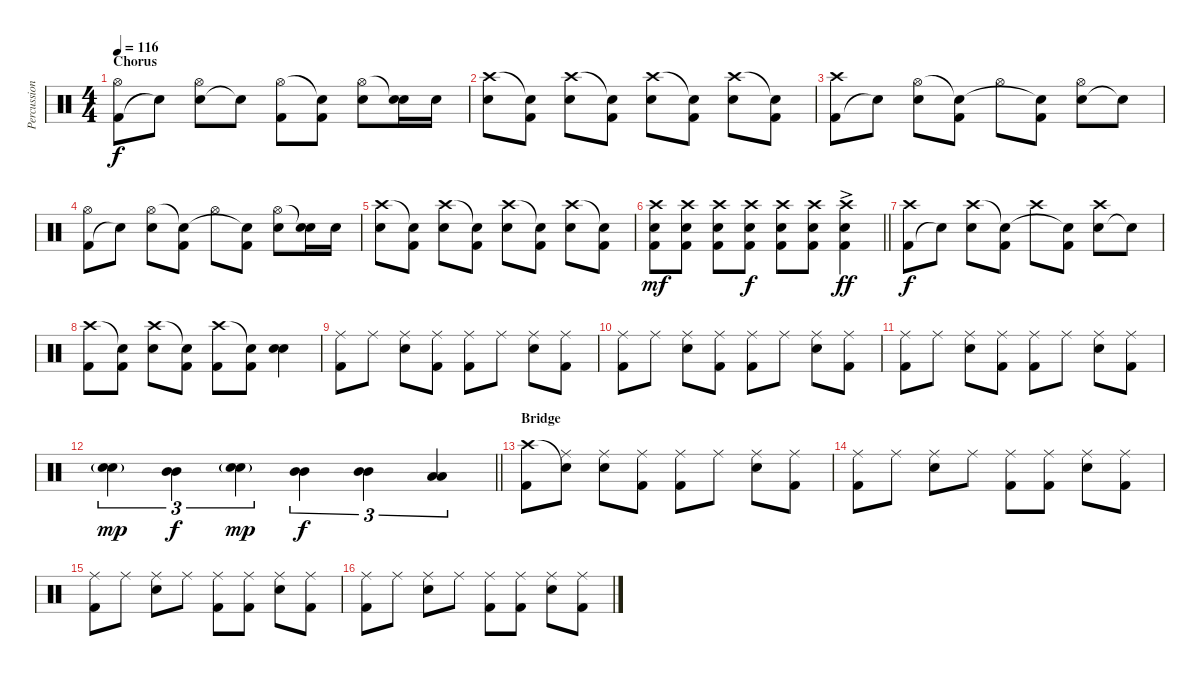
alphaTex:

\track ("Percussion" "Percussion") {instrument percussion}
\staff {score}
\articulation defaults
\ts (4 4)
\section ("" "Chorus")
\tempo 116
\clef neutral
\ks c
("Kick (hit) 2" "Hi-Hat (open)").8{dy f} "Snare (hit)"{t}.8 ("Electric Snare (hit)" "Hi-Hat (open)").8 "Snare (hit)"{t}.8 ("Kick (hit) 2" "Hi-Hat (open)").8 ("Kick (hit) 2" "Snare (hit)"{t}).8 ("Electric Snare (hit)" "Hi-Hat (open)").8 ("Electric Snare (hit)" "Snare (hit)"{t}).16 "Electric Snare (hit)".16 |
("Electric Snare (hit)" "Crash high (hit)").8 ("Kick (hit) 2" "Snare (hit)"{t}).8 ("Electric Snare (hit)" "Crash high (hit)").8 ("Kick (hit) 2" "Snare (hit)"{t}).8 ("Electric Snare (hit)" "Crash high (hit)").8 ("Kick (hit) 2" "Snare (hit)"{t}).8 ("Electric Snare (hit)" "Crash high (hit)").8 ("Kick (hit) 2" "Snare (hit)"{t}).8 |
("Kick (hit) 2" "Crash high (hit)").8 "Snare (hit)"{t}.8 ("Electric Snare (hit)" "Hi-Hat (open)").8 ("Kick (hit) 2" "Snare (hit)"{t}).8 "Hi-Hat (open)".8 ("Kick (hit) 2" "Snare (hit)"{t}).8 ("Electric Snare (hit)" "Hi-Hat (open)").8 "Snare (hit)"{t}.8 |
("Kick (hit) 2" "Hi-Hat (open)").8 "Snare (hit)"{t}.8 ("Electric Snare (hit)" "Hi-Hat (open)").8 ("Kick (hit) 2" "Snare (hit)"{t}).8 "Hi-Hat (open)".8 ("Kick (hit) 2" "Snare (hit)"{t}).8 ("Electric Snare (hit)" "Hi-Hat (open)").8 ("Electric Snare (hit)" "Snare (hit)"{t}).16 "Electric Snare (hit)".16 |
("Electric Snare (hit)" "Crash high (hit)").8 ("Kick (hit) 2" "Snare (hit)"{t}).8 ("Electric Snare (hit)" "Crash high (hit)").8 ("Kick (hit) 2" "Snare (hit)"{t}).8 ("Electric Snare (hit)" "Crash high (hit)").8 ("Kick (hit) 2" "Snare (hit)"{t}).8 ("Electric Snare (hit)" "Crash high (hit)").8 ("Kick (hit) 2" "Snare (hit)"{t}).8 |
\barLineRight lightlight
("Kick (hit) 2" "Electric Snare (hit)" "Crash high (hit)").8{dy mf} ("Kick (hit) 2" "Electric Snare (hit)" "Crash high (hit)").8 ("Kick (hit) 2" "Electric Snare (hit)" "Crash high (hit)").8 ("Kick (hit) 2" "Electric Snare (hit)" "Crash high (hit)").8{dy f} ("Kick (hit) 2" "Electric Snare (hit)" "Crash high (hit)").8 ("Kick (hit) 2" "Electric Snare (hit)" "Crash high (hit)").8 ("Kick (hit) 2"{ac} "Electric Snare (hit)"{ac} "Crash high (hit)").4{dy ff} |
("Kick (hit) 2" "Crash high (hit)").8{dy f} "Snare (hit)"{t}.8 ("Electric Snare (hit)" "Crash high (hit)").8 ("Kick (hit) 2" "Snare (hit)"{t}).8 "Crash high (hit)".8 ("Kick (hit) 2" "Snare (hit)"{t}).8 ("Electric Snare (hit)" "Crash high (hit)").8 "Snare (hit)"{t}.8 |
("Kick (hit) 2" "Crash high (hit)").8 ("Kick (hit) 2" "Snare (hit)"{t}).8 ("Electric Snare (hit)" "Crash high (hit)").8 ("Kick (hit) 2" "Snare (hit)"{t}).8 ("Kick (hit) 2" "Crash high (hit)").8 ("Kick (hit) 2" "Snare (hit)"{t}).8 ("Electric Snare (hit)" "Electric Snare (hit)").4 |
("Kick (hit) 2" "Ride (middle)").8 "Ride (middle)".8 ("Electric Snare (hit)" "Ride (middle)").8 ("Kick (hit) 2" "Ride (middle)").8 ("Kick (hit) 2" "Ride (middle)").8 "Ride (middle)".8 ("Electric Snare (hit)" "Ride (middle)").8 ("Kick (hit) 2" "Ride (middle)").8 |
("Kick (hit) 2" "Ride (middle)").8 "Ride (middle)".8 ("Electric Snare (hit)" "Ride (middle)").8 ("Kick (hit) 2" "Ride (middle)").8 ("Kick (hit) 2" "Ride (middle)").8 "Ride (middle)".8 ("Electric Snare (hit)" "Ride (middle)").8 ("Kick (hit) 2" "Ride (middle)").8 |
("Kick (hit) 2" "Ride (middle)").8 "Ride (middle)".8 ("Electric Snare (hit)" "Ride (middle)").8 ("Kick (hit) 2" "Ride (middle)").8 ("Kick (hit) 2" "Ride (middle)").8 "Ride (middle)".8 ("Electric Snare (hit)" "Ride (middle)").8 ("Kick (hit) 2" "Ride (middle)").8 |
\barLineRight lightlight
("Electric Snare (hit)" "Electric Snare (hit)"{g}).4{tu (3 2) dy mp} ("Mid Tom (hit)" "Mid Tom (hit)").4{tu (3 2) dy f} ("Electric Snare (hit)" "Electric Snare (hit)"{g}).4{tu (3 2) dy mp} ("Mid Tom (hit)" "Mid Tom (hit)").4{tu (3 2) dy f} ("Mid Tom (hit)" "Mid Tom (hit)").4{tu (3 2)} ("Low Tom (hit)" "Low Tom (hit)").4{tu (3 2)} |
\section ("" "Bridge")
("Kick (hit) 2" "Crash high (hit)").8 ("Ride (middle)" "Snare (hit)"{t}).8 ("Electric Snare (hit)" "Ride (middle)").8 ("Kick (hit) 2" "Ride (middle)").8 ("Kick (hit) 2" "Ride (middle)").8 "Ride (middle)".8 ("Electric Snare (hit)" "Ride (middle)").8 ("Kick (hit) 2" "Ride (middle)").8 |
("Kick (hit) 2" "Ride (middle)").8 "Ride (middle)".8 ("Electric Snare (hit)" "Ride (middle)").8 "Ride (middle)".8 ("Kick (hit) 2" "Ride (middle)").8 ("Kick (hit) 2" "Ride (middle)").8 ("Electric Snare (hit)" "Ride (middle)").8 ("Kick (hit) 2" "Ride (middle)").8 |
("Kick (hit) 2" "Ride (middle)").8 "Ride (middle)".8 ("Electric Snare (hit)" "Ride (middle)").8 "Ride (middle)".8 ("Kick (hit) 2" "Ride (middle)").8 ("Kick (hit) 2" "Ride (middle)").8 ("Electric Snare (hit)" "Ride (middle)").8 ("Kick (hit) 2" "Ride (middle)").8 |
("Kick (hit) 2" "Ride (middle)").8 "Ride (middle)".8 ("Electric Snare (hit)" "Ride (middle)").8 "Ride (middle)".8 ("Kick (hit) 2" "Ride (middle)").8 ("Kick (hit) 2" "Ride (middle)").8 ("Electric Snare (hit)" "Ride (middle)").8 ("Kick (hit) 2" "Ride (middle)").8
